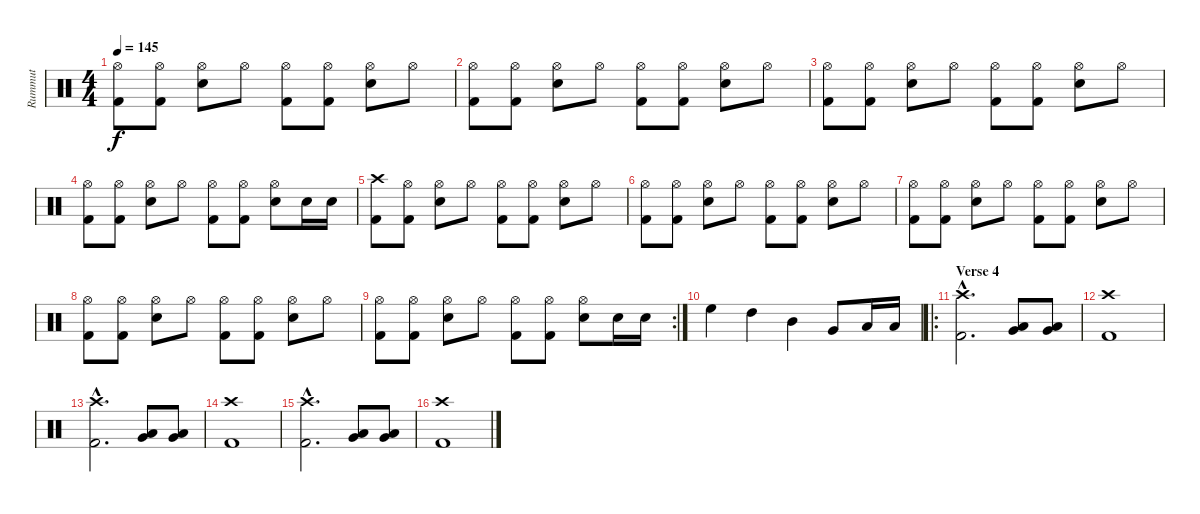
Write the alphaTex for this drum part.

\track ("Rummut" "Rummut") {instrument percussion}
\staff {score}
\articulation defaults
\ts (4 4)
\tempo 145
\clef neutral
\ks c
("Hi-Hat (open)" "Kick (hit) 2").8{dy f} ("Hi-Hat (open)" "Kick (hit) 2").8 ("Hi-Hat (open)" "Electric Snare (hit)").8 "Hi-Hat (open)".8 ("Hi-Hat (open)" "Kick (hit) 2").8 ("Hi-Hat (open)" "Kick (hit) 2").8 ("Hi-Hat (open)" "Electric Snare (hit)").8 "Hi-Hat (open)".8 |
("Hi-Hat (open)" "Kick (hit) 2").8 ("Hi-Hat (open)" "Kick (hit) 2").8 ("Hi-Hat (open)" "Electric Snare (hit)").8 "Hi-Hat (open)".8 ("Hi-Hat (open)" "Kick (hit) 2").8 ("Hi-Hat (open)" "Kick (hit) 2").8 ("Hi-Hat (open)" "Electric Snare (hit)").8 "Hi-Hat (open)".8 |
("Hi-Hat (open)" "Kick (hit) 2").8 ("Hi-Hat (open)" "Kick (hit) 2").8 ("Hi-Hat (open)" "Electric Snare (hit)").8 "Hi-Hat (open)".8 ("Hi-Hat (open)" "Kick (hit) 2").8 ("Hi-Hat (open)" "Kick (hit) 2").8 ("Hi-Hat (open)" "Electric Snare (hit)").8 "Hi-Hat (open)".8 |
("Hi-Hat (open)" "Kick (hit) 2").8 ("Hi-Hat (open)" "Kick (hit) 2").8 ("Hi-Hat (open)" "Electric Snare (hit)").8 "Hi-Hat (open)".8 ("Hi-Hat (open)" "Kick (hit) 2").8 ("Hi-Hat (open)" "Kick (hit) 2").8 ("Hi-Hat (open)" "Electric Snare (hit)").8 "Electric Snare (hit)".16 "Electric Snare (hit)".16 |
("Crash high (hit)" "Kick (hit) 2").8 ("Hi-Hat (open)" "Kick (hit) 2").8 ("Hi-Hat (open)" "Electric Snare (hit)").8 "Hi-Hat (open)".8 ("Hi-Hat (open)" "Kick (hit) 2").8 ("Hi-Hat (open)" "Kick (hit) 2").8 ("Hi-Hat (open)" "Electric Snare (hit)").8 "Hi-Hat (open)".8 |
("Hi-Hat (open)" "Kick (hit) 2").8 ("Hi-Hat (open)" "Kick (hit) 2").8 ("Hi-Hat (open)" "Electric Snare (hit)").8 "Hi-Hat (open)".8 ("Hi-Hat (open)" "Kick (hit) 2").8 ("Hi-Hat (open)" "Kick (hit) 2").8 ("Hi-Hat (open)" "Electric Snare (hit)").8 "Hi-Hat (open)".8 |
("Hi-Hat (open)" "Kick (hit) 2").8 ("Hi-Hat (open)" "Kick (hit) 2").8 ("Hi-Hat (open)" "Electric Snare (hit)").8 "Hi-Hat (open)".8 ("Hi-Hat (open)" "Kick (hit) 2").8 ("Hi-Hat (open)" "Kick (hit) 2").8 ("Hi-Hat (open)" "Electric Snare (hit)").8 "Hi-Hat (open)".8 |
("Hi-Hat (open)" "Kick (hit) 2").8 ("Hi-Hat (open)" "Kick (hit) 2").8 ("Hi-Hat (open)" "Electric Snare (hit)").8 "Hi-Hat (open)".8 ("Hi-Hat (open)" "Kick (hit) 2").8 ("Hi-Hat (open)" "Kick (hit) 2").8 ("Hi-Hat (open)" "Electric Snare (hit)").8 "Hi-Hat (open)".8 |
\rc 2
("Hi-Hat (open)" "Kick (hit) 2").8 ("Hi-Hat (open)" "Kick (hit) 2").8 ("Hi-Hat (open)" "Electric Snare (hit)").8 "Hi-Hat (open)".8 ("Hi-Hat (open)" "Kick (hit) 2").8 ("Hi-Hat (open)" "Kick (hit) 2").8 ("Hi-Hat (open)" "Electric Snare (hit)").8 "Electric Snare (hit)".16 "Electric Snare (hit)".16 |
"High Floor Tom (hit)".4 "High Tom (hit)".4 "Mid Tom (hit)".4 "Very Low Tom (hit)".8 "Low Floor Tom (hit)".16 "Low Floor Tom (hit)".16 |
\ro
\section ("" "Verse 4")
("Crash high (hit)"{hac} "Kick (hit) 2"{hac}).2{d} ("Very Low Tom (hit)" "Low Floor Tom (hit)").8 ("Very Low Tom (hit)" "Low Floor Tom (hit)").8 |
("Crash high (hit)" "Kick (hit) 2").1 |
("Crash high (hit)"{hac} "Kick (hit) 2"{hac}).2{d} ("Very Low Tom (hit)" "Low Floor Tom (hit)").8 ("Very Low Tom (hit)" "Low Floor Tom (hit)").8 |
("Crash high (hit)" "Kick (hit) 2").1 |
("Crash high (hit)"{hac} "Kick (hit) 2"{hac}).2{d} ("Very Low Tom (hit)" "Low Floor Tom (hit)").8 ("Very Low Tom (hit)" "Low Floor Tom (hit)").8 |
("Crash high (hit)" "Kick (hit) 2").1
